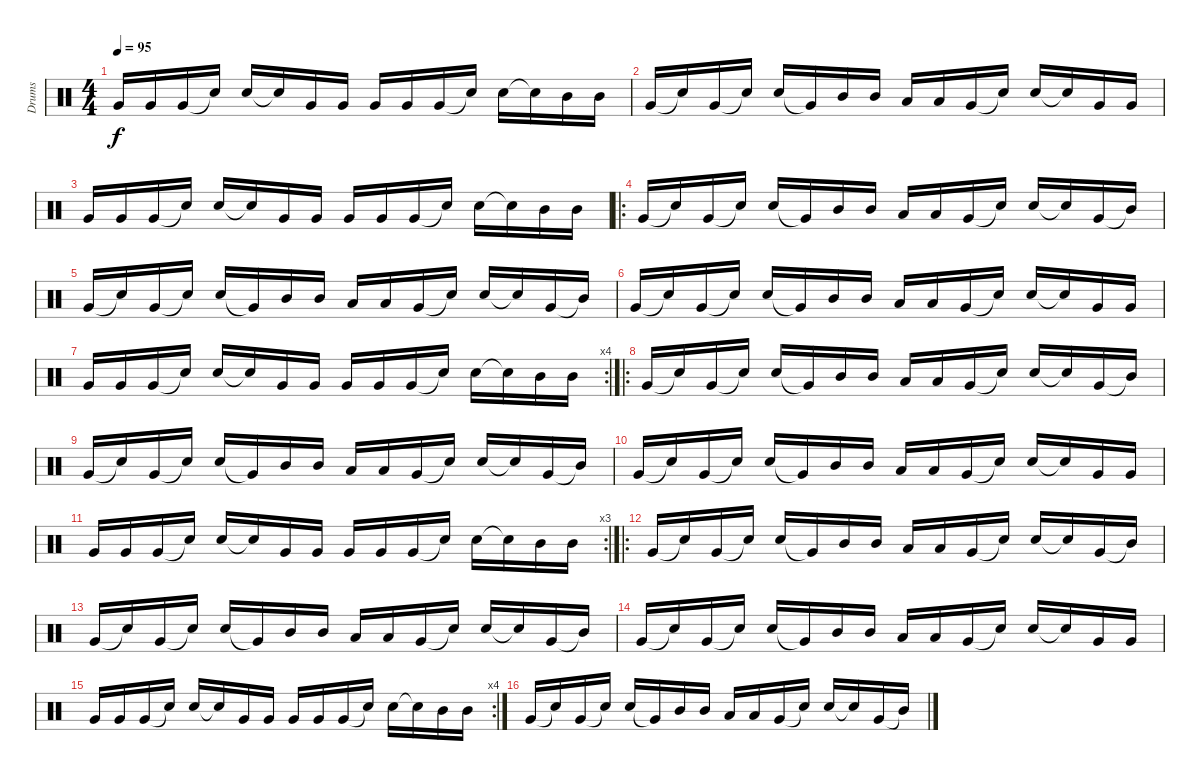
\track ("Drums" "Drums") {instrument percussion}
\staff {score}
\articulation defaults
\ts (4 4)
\tempo 95
\clef neutral
\ks c "Very Low Tom (hit)".16{dy f} "Very Low Tom (hit)".16 "Very Low Tom (hit)".16 "Snare (hit)"{t}.16 "Snare (hit) 2".16 "Snare (hit)"{t}.16 "Very Low Tom (hit)".16 "Very Low Tom (hit)".16 "Very Low Tom (hit)".16 "Very Low Tom (hit)".16 "Very Low Tom (hit)".16 "Snare (hit)"{t}.16 "Snare (hit) 2".16 "Snare (hit)"{t}.16 "Mid Tom (hit)".16 "Mid Tom (hit)".16
|
"Very Low Tom (hit)".16 "Snare (hit)"{t}.16 "Very Low Tom (hit)".16 "Snare (hit)"{t}.16 "Snare (hit) 2".16 "Very Low Tom (hit)"{t}.16 "Mid Tom (hit)".16 "Mid Tom (hit)".16 "Low Tom (hit)".16 "Low Tom (hit)".16 "Very Low Tom (hit)".16 "Snare (hit)"{t}.16 "Snare (hit) 2".16 "Snare (hit)"{t}.16 "Very Low Tom (hit)".16 "Very Low Tom (hit)".16 |
"Very Low Tom (hit)".16 "Very Low Tom (hit)".16 "Very Low Tom (hit)".16 "Snare (hit)"{t}.16 "Snare (hit) 2".16 "Snare (hit)"{t}.16 "Very Low Tom (hit)".16 "Very Low Tom (hit)".16 "Very Low Tom (hit)".16 "Very Low Tom (hit)".16 "Very Low Tom (hit)".16 "Snare (hit)"{t}.16 "Snare (hit) 2".16 "Snare (hit)"{t}.16 "Mid Tom (hit)".16 "Mid Tom (hit)".16 |
\ro "Very Low Tom (hit)".16 "Snare (hit)"{t}.16 "Very Low Tom (hit)".16 "Snare (hit)"{t}.16 "Snare (hit) 2".16 "Very Low Tom (hit)"{t}.16 "Mid Tom (hit)".16 "Mid Tom (hit)".16 "Low Tom (hit)".16 "Low Tom (hit)".16 "Very Low Tom (hit)".16 "Snare (hit)"{t}.16 "Snare (hit) 2".16 "Snare (hit)"{t}.16 "Very Low Tom (hit)".16 "Mid Tom (hit)"{t}.16
|
"Very Low Tom (hit)".16 "Snare (hit)"{t}.16 "Very Low Tom (hit)".16 "Snare (hit)"{t}.16 "Snare (hit) 2".16 "Very Low Tom (hit)"{t}.16 "Mid Tom (hit)".16 "Mid Tom (hit)".16 "Low Tom (hit)".16 "Low Tom (hit)".16 "Very Low Tom (hit)".16 "Snare (hit)"{t}.16 "Snare (hit) 2".16 "Snare (hit)"{t}.16 "Very Low Tom (hit)".16 "Mid Tom (hit)"{t}.16 |
"Very Low Tom (hit)".16 "Snare (hit)"{t}.16 "Very Low Tom (hit)".16 "Snare (hit)"{t}.16 "Snare (hit) 2".16 "Very Low Tom (hit)"{t}.16 "Mid Tom (hit)".16 "Mid Tom (hit)".16 "Low Tom (hit)".16 "Low Tom (hit)".16 "Very Low Tom (hit)".16 "Snare (hit)"{t}.16 "Snare (hit) 2".16 "Snare (hit)"{t}.16 "Very Low Tom (hit)".16 "Very Low Tom (hit)".16 |
\rc 4 "Very Low Tom (hit)".16 "Very Low Tom (hit)".16 "Very Low Tom (hit)".16 "Snare (hit)"{t}.16 "Snare (hit) 2".16 "Snare (hit)"{t}.16 "Very Low Tom (hit)".16 "Very Low Tom (hit)".16 "Very Low Tom (hit)".16 "Very Low Tom (hit)".16 "Very Low Tom (hit)".16 "Snare (hit)"{t}.16 "Snare (hit) 2".16 "Snare (hit)"{t}.16 "Mid Tom (hit)".16 "Mid Tom (hit)".16
|
\ro "Very Low Tom (hit)".16 "Snare (hit)"{t}.16 "Very Low Tom (hit)".16 "Snare (hit)"{t}.16 "Snare (hit) 2".16 "Very Low Tom (hit)"{t}.16 "Mid Tom (hit)".16 "Mid Tom (hit)".16 "Low Tom (hit)".16 "Low Tom (hit)".16 "Very Low Tom (hit)".16 "Snare (hit)"{t}.16 "Snare (hit) 2".16 "Snare (hit)"{t}.16 "Very Low Tom (hit)".16 "Mid Tom (hit)"{t}.16
|
"Very Low Tom (hit)".16 "Snare (hit)"{t}.16 "Very Low Tom (hit)".16 "Snare (hit)"{t}.16 "Snare (hit) 2".16 "Very Low Tom (hit)"{t}.16 "Mid Tom (hit)".16 "Mid Tom (hit)".16 "Low Tom (hit)".16 "Low Tom (hit)".16 "Very Low Tom (hit)".16 "Snare (hit)"{t}.16 "Snare (hit) 2".16 "Snare (hit)"{t}.16 "Very Low Tom (hit)".16 "Mid Tom (hit)"{t}.16 |
"Very Low Tom (hit)".16 "Snare (hit)"{t}.16 "Very Low Tom (hit)".16 "Snare (hit)"{t}.16 "Snare (hit) 2".16 "Very Low Tom (hit)"{t}.16 "Mid Tom (hit)".16 "Mid Tom (hit)".16 "Low Tom (hit)".16 "Low Tom (hit)".16 "Very Low Tom (hit)".16 "Snare (hit)"{t}.16 "Snare (hit) 2".16 "Snare (hit)"{t}.16 "Very Low Tom (hit)".16 "Very Low Tom (hit)".16 |
\rc 3 "Very Low Tom (hit)".16 "Very Low Tom (hit)".16 "Very Low Tom (hit)".16 "Snare (hit)"{t}.16 "Snare (hit) 2".16 "Snare (hit)"{t}.16 "Very Low Tom (hit)".16 "Very Low Tom (hit)".16 "Very Low Tom (hit)".16 "Very Low Tom (hit)".16 "Very Low Tom (hit)".16 "Snare (hit)"{t}.16 "Snare (hit) 2".16 "Snare (hit)"{t}.16 "Mid Tom (hit)".16 "Mid Tom (hit)".16
|
\ro "Very Low Tom (hit)".16 "Snare (hit)"{t}.16 "Very Low Tom (hit)".16 "Snare (hit)"{t}.16 "Snare (hit) 2".16 "Very Low Tom (hit)"{t}.16 "Mid Tom (hit)".16 "Mid Tom (hit)".16 "Low Tom (hit)".16 "Low Tom (hit)".16 "Very Low Tom (hit)".16 "Snare (hit)"{t}.16 "Snare (hit) 2".16 "Snare (hit)"{t}.16 "Very Low Tom (hit)".16 "Mid Tom (hit)"{t}.16
|
"Very Low Tom (hit)".16 "Snare (hit)"{t}.16 "Very Low Tom (hit)".16 "Snare (hit)"{t}.16 "Snare (hit) 2".16 "Very Low Tom (hit)"{t}.16 "Mid Tom (hit)".16 "Mid Tom (hit)".16 "Low Tom (hit)".16 "Low Tom (hit)".16 "Very Low Tom (hit)".16 "Snare (hit)"{t}.16 "Snare (hit) 2".16 "Snare (hit)"{t}.16 "Very Low Tom (hit)".16 "Mid Tom (hit)"{t}.16 |
"Very Low Tom (hit)".16 "Snare (hit)"{t}.16 "Very Low Tom (hit)".16 "Snare (hit)"{t}.16 "Snare (hit) 2".16 "Very Low Tom (hit)"{t}.16 "Mid Tom (hit)".16 "Mid Tom (hit)".16 "Low Tom (hit)".16 "Low Tom (hit)".16 "Very Low Tom (hit)".16 "Snare (hit)"{t}.16 "Snare (hit) 2".16 "Snare (hit)"{t}.16 "Very Low Tom (hit)".16 "Very Low Tom (hit)".16 |
\rc 4 "Very Low Tom (hit)".16 "Very Low Tom (hit)".16 "Very Low Tom (hit)".16 "Snare (hit)"{t}.16 "Snare (hit) 2".16 "Snare (hit)"{t}.16 "Very Low Tom (hit)".16 "Very Low Tom (hit)".16 "Very Low Tom (hit)".16 "Very Low Tom (hit)".16 "Very Low Tom (hit)".16 "Snare (hit)"{t}.16 "Snare (hit) 2".16 "Snare (hit)"{t}.16 "Mid Tom (hit)".16 "Mid Tom (hit)".16
|
"Very Low Tom (hit)".16 "Snare (hit)"{t}.16 "Very Low Tom (hit)".16 "Snare (hit)"{t}.16 "Snare (hit) 2".16 "Very Low Tom (hit)"{t}.16 "Mid Tom (hit)".16 "Mid Tom (hit)".16 "Low Tom (hit)".16 "Low Tom (hit)".16 "Very Low Tom (hit)".16 "Snare (hit)"{t}.16 "Snare (hit) 2".16 "Snare (hit)"{t}.16 "Very Low Tom (hit)".16 "Mid Tom (hit)"{t}.16
